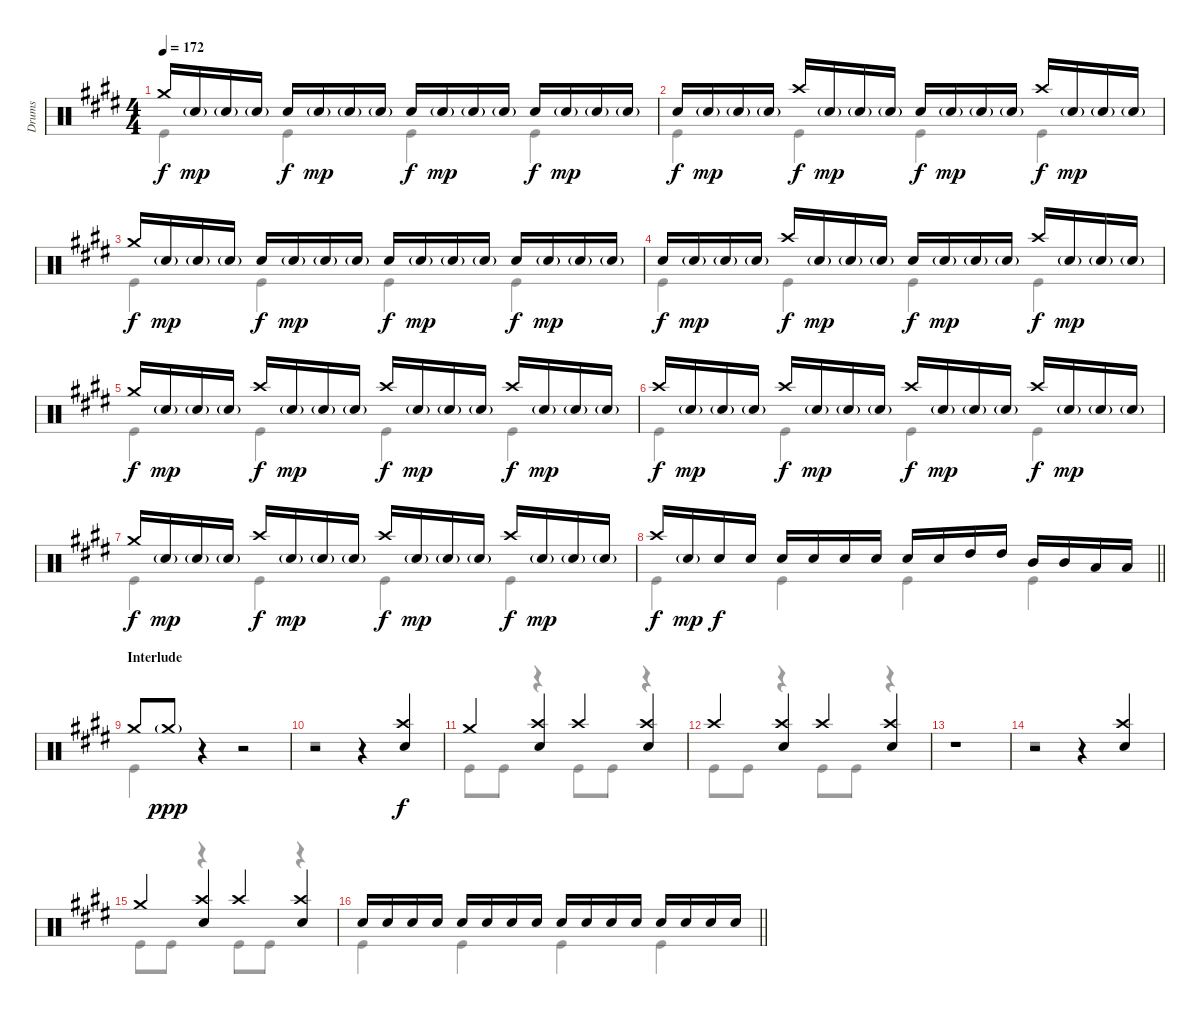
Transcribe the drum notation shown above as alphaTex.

\track ("Drums" "Drums") {instrument percussion}
\staff {score}
\articulation defaults
\voice
\ts (4 4)
\tempo 172
\clef neutral
\ks e "Crash medium (hit)".16{dy f} "Electric Snare (hit)"{g}.16{dy mp} "Electric Snare (hit)"{g}.16 "Electric Snare (hit)"{g}.16 "Electric Snare (hit)".16{dy f} "Electric Snare (hit)"{g}.16{dy mp} "Electric Snare (hit)"{g}.16 "Electric Snare (hit)"{g}.16 "Electric Snare (hit)".16{dy f} "Electric Snare (hit)"{g}.16{dy mp} "Electric Snare (hit)"{g}.16 "Electric Snare (hit)"{g}.16 "Electric Snare (hit)".16{dy f} "Electric Snare (hit)"{g}.16{dy mp} "Electric Snare (hit)"{g}.16 "Electric Snare (hit)"{g}.16
|
"Electric Snare (hit)".16{dy f} "Electric Snare (hit)"{g}.16{dy mp} "Electric Snare (hit)"{g}.16 "Electric Snare (hit)"{g}.16 "Crash high (hit)".16{dy f} "Electric Snare (hit)"{g}.16{dy mp} "Electric Snare (hit)"{g}.16 "Electric Snare (hit)"{g}.16 "Electric Snare (hit)".16{dy f} "Electric Snare (hit)"{g}.16{dy mp} "Electric Snare (hit)"{g}.16 "Electric Snare (hit)"{g}.16 "Crash high (hit)".16{dy f} "Electric Snare (hit)"{g}.16{dy mp} "Electric Snare (hit)"{g}.16 "Electric Snare (hit)"{g}.16 |
"Crash medium (hit)".16{dy f} "Electric Snare (hit)"{g}.16{dy mp} "Electric Snare (hit)"{g}.16 "Electric Snare (hit)"{g}.16 "Electric Snare (hit)".16{dy f} "Electric Snare (hit)"{g}.16{dy mp} "Electric Snare (hit)"{g}.16 "Electric Snare (hit)"{g}.16 "Electric Snare (hit)".16{dy f} "Electric Snare (hit)"{g}.16{dy mp} "Electric Snare (hit)"{g}.16 "Electric Snare (hit)"{g}.16 "Electric Snare (hit)".16{dy f} "Electric Snare (hit)"{g}.16{dy mp} "Electric Snare (hit)"{g}.16 "Electric Snare (hit)"{g}.16 |
"Electric Snare (hit)".16{dy f} "Electric Snare (hit)"{g}.16{dy mp} "Electric Snare (hit)"{g}.16 "Electric Snare (hit)"{g}.16 "Crash high (hit)".16{dy f} "Electric Snare (hit)"{g}.16{dy mp} "Electric Snare (hit)"{g}.16 "Electric Snare (hit)"{g}.16 "Electric Snare (hit)".16{dy f} "Electric Snare (hit)"{g}.16{dy mp} "Electric Snare (hit)"{g}.16 "Electric Snare (hit)"{g}.16 "Crash high (hit)".16{dy f} "Electric Snare (hit)"{g}.16{dy mp} "Electric Snare (hit)"{g}.16 "Electric Snare (hit)"{g}.16 |
"Crash medium (hit)".16{dy f} "Electric Snare (hit)"{g}.16{dy mp} "Electric Snare (hit)"{g}.16 "Electric Snare (hit)"{g}.16 "Crash high (hit)".16{dy f} "Electric Snare (hit)"{g}.16{dy mp} "Electric Snare (hit)"{g}.16 "Electric Snare (hit)"{g}.16 "Crash high (hit)".16{dy f} "Electric Snare (hit)"{g}.16{dy mp} "Electric Snare (hit)"{g}.16 "Electric Snare (hit)"{g}.16 "Crash high (hit)".16{dy f} "Electric Snare (hit)"{g}.16{dy mp} "Electric Snare (hit)"{g}.16 "Electric Snare (hit)"{g}.16 |
"Crash high (hit)".16{dy f} "Electric Snare (hit)"{g}.16{dy mp} "Electric Snare (hit)"{g}.16 "Electric Snare (hit)"{g}.16 "Crash high (hit)".16{dy f} "Electric Snare (hit)"{g}.16{dy mp} "Electric Snare (hit)"{g}.16 "Electric Snare (hit)"{g}.16 "Crash high (hit)".16{dy f} "Electric Snare (hit)"{g}.16{dy mp} "Electric Snare (hit)"{g}.16 "Electric Snare (hit)"{g}.16 "Crash high (hit)".16{dy f} "Electric Snare (hit)"{g}.16{dy mp} "Electric Snare (hit)"{g}.16 "Electric Snare (hit)"{g}.16 |
"Crash medium (hit)".16{dy f} "Electric Snare (hit)"{g}.16{dy mp} "Electric Snare (hit)"{g}.16 "Electric Snare (hit)"{g}.16 "Crash high (hit)".16{dy f} "Electric Snare (hit)"{g}.16{dy mp} "Electric Snare (hit)"{g}.16 "Electric Snare (hit)"{g}.16 "Crash high (hit)".16{dy f} "Electric Snare (hit)"{g}.16{dy mp} "Electric Snare (hit)"{g}.16 "Electric Snare (hit)"{g}.16 "Crash high (hit)".16{dy f} "Electric Snare (hit)"{g}.16{dy mp} "Electric Snare (hit)"{g}.16 "Electric Snare (hit)"{g}.16 |
\barLineRight lightlight "Crash high (hit)".16{dy f} "Electric Snare (hit)"{g}.16{dy mp} "Electric Snare (hit)".16{dy f} "Electric Snare (hit)".16 "Electric Snare (hit)".16 "Electric Snare (hit)".16 "Electric Snare (hit)".16 "Electric Snare (hit)".16 "Electric Snare (hit)".16 "Electric Snare (hit)".16 "High Tom (hit)".16 "High Tom (hit)".16 "Mid Tom (hit)".16 "Mid Tom (hit)".16 "Low Tom (hit)".16 "Low Tom (hit)".16
|
\section ("" "Interlude")
"Crash medium (hit)".8 "Crash medium (hit)"{g}.8{dy ppp} r.4 r.2 |
r.2 r.4 ("Crash high (hit)" "Electric Snare (hit)").4{dy f} |
"Crash medium (hit)".4 ("Crash high (hit)" "Electric Snare (hit)").4 "Crash high (hit)".4 ("Crash high (hit)" "Electric Snare (hit)").4 |
"Crash high (hit)".4 ("Crash high (hit)" "Electric Snare (hit)").4 "Crash high (hit)".4 ("Crash high (hit)" "Electric Snare (hit)").4 |
r.1 |
r.2 r.4 ("Crash high (hit)" "Electric Snare (hit)").4 |
"Crash medium (hit)".4 ("Crash high (hit)" "Electric Snare (hit)").4 "Crash high (hit)".4 ("Crash high (hit)" "Electric Snare (hit)").4 |
\barLineRight lightlight "Electric Snare (hit)".16 "Electric Snare (hit)".16 "Electric Snare (hit)".16 "Electric Snare (hit)".16 "Electric Snare (hit)".16 "Electric Snare (hit)".16 "Electric Snare (hit)".16 "Electric Snare (hit)".16 "Electric Snare (hit)".16 "Electric Snare (hit)".16 "Electric Snare (hit)".16 "Electric Snare (hit)".16 "Electric Snare (hit)".16 "Electric Snare (hit)".16 "Electric Snare (hit)".16 "Electric Snare (hit)".16
\voice
\clef neutral
\ottava regular
\simile none
\ks e "Kick (hit)".4{dy f} "Kick (hit)".4 "Kick (hit)".4 "Kick (hit)".4
|
"Kick (hit)".4 "Kick (hit)".4 "Kick (hit)".4 "Kick (hit)".4 |
"Kick (hit)".4 "Kick (hit)".4 "Kick (hit)".4 "Kick (hit)".4 |
"Kick (hit)".4 "Kick (hit)".4 "Kick (hit)".4 "Kick (hit)".4 |
"Kick (hit)".4 "Kick (hit)".4 "Kick (hit)".4 "Kick (hit)".4 |
"Kick (hit)".4 "Kick (hit)".4 "Kick (hit)".4 "Kick (hit)".4 |
"Kick (hit)".4 "Kick (hit)".4 "Kick (hit)".4 "Kick (hit)".4 |
\barLineRight lightlight "Kick (hit)".4 "Kick (hit)".4 "Kick (hit)".4 "Kick (hit)".4
|
"Kick (hit)".4 r.4 r.2 |
r.1 |
"Kick (hit)".8 "Kick (hit)".8 r.4 "Kick (hit)".8 "Kick (hit)".8 r.4 |
"Kick (hit)".8 "Kick (hit)".8 r.4 "Kick (hit)".8 "Kick (hit)".8 r.4 |
r.1 |
r.1 |
"Kick (hit)".8 "Kick (hit)".8 r.4 "Kick (hit)".8 "Kick (hit)".8 r.4 |
\barLineRight lightlight "Kick (hit)".4 "Kick (hit)".4 "Kick (hit)".4 "Kick (hit)".4
